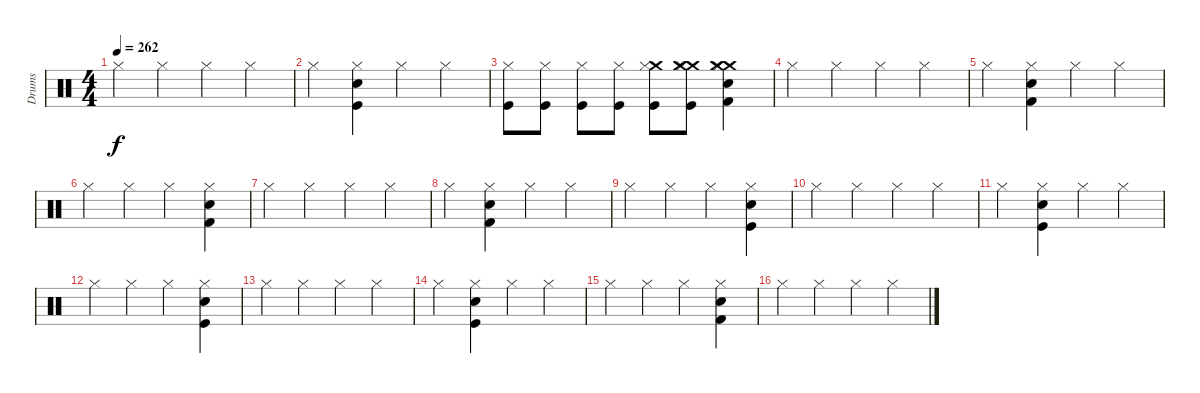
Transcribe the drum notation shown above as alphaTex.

\track ("Drums" "Drums") {instrument percussion}
\staff {score}
\articulation defaults
\ts (4 4)
\tempo 262
\clef neutral
\ks c "Hi-Hat (closed)".4{dy f} "Hi-Hat (closed)".4 "Hi-Hat (closed)".4 "Hi-Hat (closed)".4
|
"Hi-Hat (closed)".4 ("Electric Snare (hit)" "Hi-Hat (closed)" "Kick (hit)").4 "Hi-Hat (closed)".4 "Hi-Hat (closed)".4 |
("Hi-Hat (closed)" "Kick (hit)").8 ("Hi-Hat (closed)" "Kick (hit)").8 ("Hi-Hat (closed)" "Kick (hit)").8 ("Hi-Hat (closed)" "Kick (hit)").8 ("Crash medium (hit)" "Hi-Hat (closed)" "Kick (hit)").8 ("Crash medium (hit)" "Crash medium (hit)" "Hi-Hat (closed)" "Kick (hit)").8 ("Crash medium (hit)" "Crash medium (hit)" "Electric Snare (hit)" "Hi-Hat (closed)" "Kick (hit) 2").4 |
"Hi-Hat (closed)".4 "Hi-Hat (closed)".4 "Hi-Hat (closed)".4 "Hi-Hat (closed)".4 |
"Hi-Hat (closed)".4 ("Electric Snare (hit)" "Hi-Hat (closed)" "Kick (hit) 2").4 "Hi-Hat (closed)".4 "Hi-Hat (closed)".4 |
"Hi-Hat (closed)".4 "Hi-Hat (closed)".4 "Hi-Hat (closed)".4 ("Electric Snare (hit)" "Hi-Hat (closed)" "Kick (hit) 2").4 |
"Hi-Hat (closed)".4 "Hi-Hat (closed)".4 "Hi-Hat (closed)".4 "Hi-Hat (closed)".4 |
"Hi-Hat (closed)".4 ("Electric Snare (hit)" "Hi-Hat (closed)" "Kick (hit) 2").4 "Hi-Hat (closed)".4 "Hi-Hat (closed)".4 |
"Hi-Hat (closed)".4 "Hi-Hat (closed)".4 "Hi-Hat (closed)".4 ("Electric Snare (hit)" "Hi-Hat (closed)" "Kick (hit)").4 |
"Hi-Hat (closed)".4 "Hi-Hat (closed)".4 "Hi-Hat (closed)".4 "Hi-Hat (closed)".4 |
"Hi-Hat (closed)".4 ("Electric Snare (hit)" "Hi-Hat (closed)" "Kick (hit)").4 "Hi-Hat (closed)".4 "Hi-Hat (closed)".4 |
"Hi-Hat (closed)".4 "Hi-Hat (closed)".4 "Hi-Hat (closed)".4 ("Electric Snare (hit)" "Hi-Hat (closed)" "Kick (hit)").4 |
"Hi-Hat (closed)".4 "Hi-Hat (closed)".4 "Hi-Hat (closed)".4 "Hi-Hat (closed)".4 |
"Hi-Hat (closed)".4 ("Electric Snare (hit)" "Hi-Hat (closed)" "Kick (hit)").4 "Hi-Hat (closed)".4 "Hi-Hat (closed)".4 |
"Hi-Hat (closed)".4 "Hi-Hat (closed)".4 "Hi-Hat (closed)".4 ("Electric Snare (hit)" "Hi-Hat (closed)" "Kick (hit) 2").4 |
"Hi-Hat (closed)".4 "Hi-Hat (closed)".4 "Hi-Hat (closed)".4 "Hi-Hat (closed)".4
